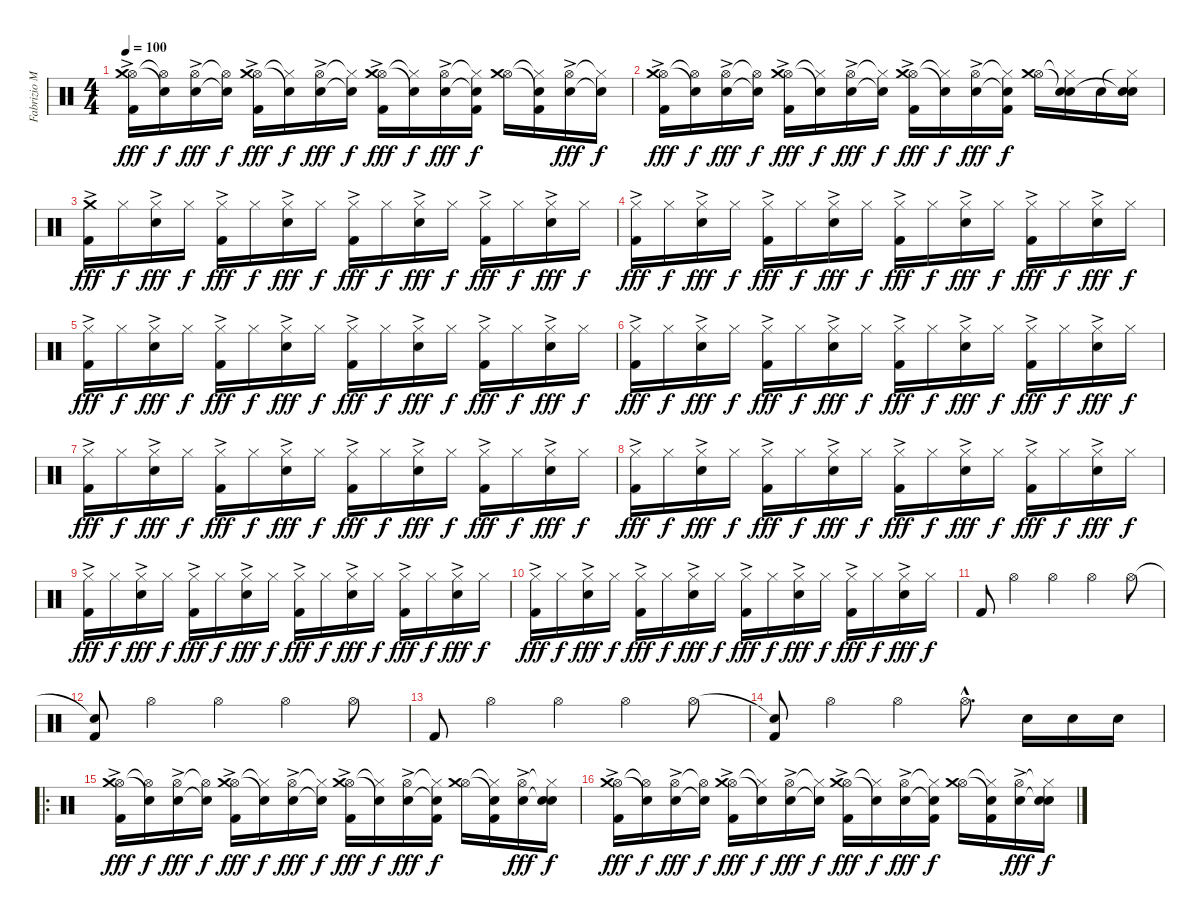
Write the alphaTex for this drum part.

\track ("Fabrizio Morreti (drums)" "Fabrizio M") {instrument percussion}
\staff {score}
\articulation defaults
\ts (4 4)
\tempo 100
\clef neutral
\ks c
("Hi-Hat (open)" "Crash medium (hit)" "Kick (hit) 2"{ac}).16{dy fff} ("Hi-Hat (open)"{t} "Snare (hit)"{t}).16{dy f} ("Hi-Hat (open)" "Electric Snare (hit)"{ac}).16{dy fff} ("Hi-Hat (open)"{t} "Snare (hit)"{t}).16{dy f} ("Hi-Hat (open)" "Crash medium (hit)" "Kick (hit) 2"{ac}).16{dy fff} ("Hi-Hat (closed)"{t} "Snare (hit)"{t}).16{dy f} ("Hi-Hat (open)" "Electric Snare (hit)"{ac}).16{dy fff} ("Hi-Hat (closed)"{t} "Snare (hit)"{t}).16{dy f} ("Hi-Hat (open)" "Crash medium (hit)" "Kick (hit) 2"{ac}).16{dy fff} ("Hi-Hat (closed)"{t} "Snare (hit)"{t}).16{dy f} ("Hi-Hat (open)" "Electric Snare (hit)"{ac}).16{dy fff} ("Hi-Hat (closed)"{t} "Snare (hit)"{t} "Kick (hit) 2").16{dy f} ("Hi-Hat (open)" "Crash medium (hit)").16 ("Hi-Hat (closed)"{t} "Snare (hit)"{t} "Kick (hit) 2").16 ("Hi-Hat (open)" "Electric Snare (hit)"{ac}).16{dy fff} ("Hi-Hat (closed)"{t} "Snare (hit)"{t}).16{dy f} |
("Hi-Hat (open)" "Crash medium (hit)" "Kick (hit) 2"{ac}).16{dy fff} ("Hi-Hat (open)"{t} "Snare (hit)"{t}).16{dy f} ("Hi-Hat (open)" "Electric Snare (hit)"{ac}).16{dy fff} ("Hi-Hat (open)"{t} "Snare (hit)"{t}).16{dy f} ("Hi-Hat (open)" "Crash medium (hit)" "Kick (hit) 2"{ac}).16{dy fff} ("Hi-Hat (closed)"{t} "Snare (hit)"{t}).16{dy f} ("Hi-Hat (open)" "Electric Snare (hit)"{ac}).16{dy fff} ("Hi-Hat (closed)"{t} "Snare (hit)"{t}).16{dy f} ("Hi-Hat (open)" "Crash medium (hit)" "Kick (hit) 2"{ac}).16{dy fff} ("Hi-Hat (closed)"{t} "Snare (hit)"{t}).16{dy f} ("Hi-Hat (open)" "Electric Snare (hit)"{ac}).16{dy fff} ("Hi-Hat (closed)"{t} "Snare (hit)"{t} "Kick (hit) 2").16{dy f} ("Hi-Hat (open)" "Crash medium (hit)").16 ("Hi-Hat (closed)"{t} "Snare (hit)"{t} "Electric Snare (hit)").16 "Electric Snare (hit)".16 ("Hi-Hat (closed)"{t} "Snare (hit)"{t} "Electric Snare (hit)").16 |
("Crash medium (hit)" "Kick (hit) 2"{ac}).16{dy fff} "Hi-Hat (closed)".16{dy f} ("Hi-Hat (closed)" "Electric Snare (hit)"{ac}).16{dy fff} "Hi-Hat (closed)".16{dy f} ("Hi-Hat (closed)" "Kick (hit) 2"{ac}).16{dy fff} "Hi-Hat (closed)".16{dy f} ("Hi-Hat (closed)" "Electric Snare (hit)"{ac}).16{dy fff} "Hi-Hat (closed)".16{dy f} ("Hi-Hat (closed)" "Kick (hit) 2"{ac}).16{dy fff} "Hi-Hat (closed)".16{dy f} ("Hi-Hat (closed)" "Electric Snare (hit)"{ac}).16{dy fff} "Hi-Hat (closed)".16{dy f} ("Hi-Hat (closed)" "Kick (hit) 2"{ac}).16{dy fff} "Hi-Hat (closed)".16{dy f} ("Hi-Hat (closed)" "Electric Snare (hit)"{ac}).16{dy fff} "Hi-Hat (closed)".16{dy f} |
("Hi-Hat (closed)" "Kick (hit) 2"{ac}).16{dy fff} "Hi-Hat (closed)".16{dy f} ("Hi-Hat (closed)" "Electric Snare (hit)"{ac}).16{dy fff} "Hi-Hat (closed)".16{dy f} ("Hi-Hat (closed)" "Kick (hit) 2"{ac}).16{dy fff} "Hi-Hat (closed)".16{dy f} ("Hi-Hat (closed)" "Electric Snare (hit)"{ac}).16{dy fff} "Hi-Hat (closed)".16{dy f} ("Hi-Hat (closed)" "Kick (hit) 2"{ac}).16{dy fff} "Hi-Hat (closed)".16{dy f} ("Hi-Hat (closed)" "Electric Snare (hit)"{ac}).16{dy fff} "Hi-Hat (closed)".16{dy f} ("Hi-Hat (closed)" "Kick (hit) 2"{ac}).16{dy fff} "Hi-Hat (closed)".16{dy f} ("Hi-Hat (closed)" "Electric Snare (hit)"{ac}).16{dy fff} "Hi-Hat (closed)".16{dy f} |
("Hi-Hat (closed)" "Kick (hit) 2"{ac}).16{dy fff} "Hi-Hat (closed)".16{dy f} ("Hi-Hat (closed)" "Electric Snare (hit)"{ac}).16{dy fff} "Hi-Hat (closed)".16{dy f} ("Hi-Hat (closed)" "Kick (hit) 2"{ac}).16{dy fff} "Hi-Hat (closed)".16{dy f} ("Hi-Hat (closed)" "Electric Snare (hit)"{ac}).16{dy fff} "Hi-Hat (closed)".16{dy f} ("Hi-Hat (closed)" "Kick (hit) 2"{ac}).16{dy fff} "Hi-Hat (closed)".16{dy f} ("Hi-Hat (closed)" "Electric Snare (hit)"{ac}).16{dy fff} "Hi-Hat (closed)".16{dy f} ("Hi-Hat (closed)" "Kick (hit) 2"{ac}).16{dy fff} "Hi-Hat (closed)".16{dy f} ("Hi-Hat (closed)" "Electric Snare (hit)"{ac}).16{dy fff} "Hi-Hat (closed)".16{dy f} |
("Hi-Hat (closed)" "Kick (hit) 2"{ac}).16{dy fff} "Hi-Hat (closed)".16{dy f} ("Hi-Hat (closed)" "Electric Snare (hit)"{ac}).16{dy fff} "Hi-Hat (closed)".16{dy f} ("Hi-Hat (closed)" "Kick (hit) 2"{ac}).16{dy fff} "Hi-Hat (closed)".16{dy f} ("Hi-Hat (closed)" "Electric Snare (hit)"{ac}).16{dy fff} "Hi-Hat (closed)".16{dy f} ("Hi-Hat (closed)" "Kick (hit) 2"{ac}).16{dy fff} "Hi-Hat (closed)".16{dy f} ("Hi-Hat (closed)" "Electric Snare (hit)"{ac}).16{dy fff} "Hi-Hat (closed)".16{dy f} ("Hi-Hat (closed)" "Kick (hit) 2"{ac}).16{dy fff} "Hi-Hat (closed)".16{dy f} ("Hi-Hat (closed)" "Electric Snare (hit)"{ac}).16{dy fff} "Hi-Hat (closed)".16{dy f} |
("Hi-Hat (closed)" "Kick (hit) 2"{ac}).16{dy fff} "Hi-Hat (closed)".16{dy f} ("Hi-Hat (closed)" "Electric Snare (hit)"{ac}).16{dy fff} "Hi-Hat (closed)".16{dy f} ("Hi-Hat (closed)" "Kick (hit) 2"{ac}).16{dy fff} "Hi-Hat (closed)".16{dy f} ("Hi-Hat (closed)" "Electric Snare (hit)"{ac}).16{dy fff} "Hi-Hat (closed)".16{dy f} ("Hi-Hat (closed)" "Kick (hit) 2"{ac}).16{dy fff} "Hi-Hat (closed)".16{dy f} ("Hi-Hat (closed)" "Electric Snare (hit)"{ac}).16{dy fff} "Hi-Hat (closed)".16{dy f} ("Hi-Hat (closed)" "Kick (hit) 2"{ac}).16{dy fff} "Hi-Hat (closed)".16{dy f} ("Hi-Hat (closed)" "Electric Snare (hit)"{ac}).16{dy fff} "Hi-Hat (closed)".16{dy f} |
("Hi-Hat (closed)" "Kick (hit) 2"{ac}).16{dy fff} "Hi-Hat (closed)".16{dy f} ("Hi-Hat (closed)" "Electric Snare (hit)"{ac}).16{dy fff} "Hi-Hat (closed)".16{dy f} ("Hi-Hat (closed)" "Kick (hit) 2"{ac}).16{dy fff} "Hi-Hat (closed)".16{dy f} ("Hi-Hat (closed)" "Electric Snare (hit)"{ac}).16{dy fff} "Hi-Hat (closed)".16{dy f} ("Hi-Hat (closed)" "Kick (hit) 2"{ac}).16{dy fff} "Hi-Hat (closed)".16{dy f} ("Hi-Hat (closed)" "Electric Snare (hit)"{ac}).16{dy fff} "Hi-Hat (closed)".16{dy f} ("Hi-Hat (closed)" "Kick (hit) 2"{ac}).16{dy fff} "Hi-Hat (closed)".16{dy f} ("Hi-Hat (closed)" "Electric Snare (hit)"{ac}).16{dy fff} "Hi-Hat (closed)".16{dy f} |
("Hi-Hat (closed)" "Kick (hit) 2"{ac}).16{dy fff} "Hi-Hat (closed)".16{dy f} ("Hi-Hat (closed)" "Electric Snare (hit)"{ac}).16{dy fff} "Hi-Hat (closed)".16{dy f} ("Hi-Hat (closed)" "Kick (hit) 2"{ac}).16{dy fff} "Hi-Hat (closed)".16{dy f} ("Hi-Hat (closed)" "Electric Snare (hit)"{ac}).16{dy fff} "Hi-Hat (closed)".16{dy f} ("Hi-Hat (closed)" "Kick (hit) 2"{ac}).16{dy fff} "Hi-Hat (closed)".16{dy f} ("Hi-Hat (closed)" "Electric Snare (hit)"{ac}).16{dy fff} "Hi-Hat (closed)".16{dy f} ("Hi-Hat (closed)" "Kick (hit) 2"{ac}).16{dy fff} "Hi-Hat (closed)".16{dy f} ("Hi-Hat (closed)" "Electric Snare (hit)"{ac}).16{dy fff} "Hi-Hat (closed)".16{dy f} |
("Hi-Hat (closed)" "Kick (hit) 2"{ac}).16{dy fff} "Hi-Hat (closed)".16{dy f} ("Hi-Hat (closed)" "Electric Snare (hit)"{ac}).16{dy fff} "Hi-Hat (closed)".16{dy f} ("Hi-Hat (closed)" "Kick (hit) 2"{ac}).16{dy fff} "Hi-Hat (closed)".16{dy f} ("Hi-Hat (closed)" "Electric Snare (hit)"{ac}).16{dy fff} "Hi-Hat (closed)".16{dy f} ("Hi-Hat (closed)" "Kick (hit) 2"{ac}).16{dy fff} "Hi-Hat (closed)".16{dy f} ("Hi-Hat (closed)" "Electric Snare (hit)"{ac}).16{dy fff} "Hi-Hat (closed)".16{dy f} ("Hi-Hat (closed)" "Kick (hit) 2"{ac}).16{dy fff} "Hi-Hat (closed)".16{dy f} ("Hi-Hat (closed)" "Electric Snare (hit)"{ac}).16{dy fff} "Hi-Hat (closed)".16{dy f} |
"Kick (hit) 2".8 "Hi-Hat (open)".4 "Hi-Hat (open)".4 "Hi-Hat (open)".4 "Hi-Hat (open)".8 |
("Snare (hit)"{t} "Kick (hit) 2").8 "Hi-Hat (open)".4 "Hi-Hat (open)".4 "Hi-Hat (open)".4 "Hi-Hat (open)".8 |
"Kick (hit) 2".8 "Hi-Hat (open)".4 "Hi-Hat (open)".4 "Hi-Hat (open)".4 "Hi-Hat (open)".8 |
("Snare (hit)"{t} "Kick (hit) 2").8 "Hi-Hat (open)".4 "Hi-Hat (open)".4 "Hi-Hat (open)"{hac}.8{d} "Electric Snare (hit)".16 "Electric Snare (hit)".16 "Electric Snare (hit)".16 |
\ro
("Hi-Hat (open)" "Crash medium (hit)" "Kick (hit) 2"{ac}).16{dy fff} ("Hi-Hat (open)"{t} "Snare (hit)"{t}).16{dy f} ("Hi-Hat (open)" "Electric Snare (hit)"{ac}).16{dy fff} ("Hi-Hat (open)"{t} "Snare (hit)"{t}).16{dy f} ("Hi-Hat (open)" "Crash medium (hit)" "Kick (hit) 2"{ac}).16{dy fff} ("Hi-Hat (closed)"{t} "Snare (hit)"{t}).16{dy f} ("Hi-Hat (open)" "Electric Snare (hit)"{ac}).16{dy fff} ("Hi-Hat (closed)"{t} "Snare (hit)"{t}).16{dy f} ("Hi-Hat (open)" "Crash medium (hit)" "Kick (hit) 2"{ac}).16{dy fff} ("Hi-Hat (closed)"{t} "Snare (hit)"{t}).16{dy f} ("Hi-Hat (open)" "Electric Snare (hit)"{ac}).16{dy fff} ("Hi-Hat (closed)"{t} "Snare (hit)"{t} "Kick (hit) 2").16{dy f} ("Hi-Hat (open)" "Crash medium (hit)").16 ("Hi-Hat (closed)"{t} "Snare (hit)"{t} "Kick (hit) 2").16 ("Hi-Hat (open)" "Electric Snare (hit)"{ac}).16{dy fff} ("Hi-Hat (closed)"{t} "Snare (hit)"{t} "Electric Snare (hit)").16{dy f} |
("Hi-Hat (open)" "Crash medium (hit)" "Kick (hit) 2"{ac}).16{dy fff} ("Hi-Hat (open)"{t} "Snare (hit)"{t}).16{dy f} ("Hi-Hat (open)" "Electric Snare (hit)"{ac}).16{dy fff} ("Hi-Hat (open)"{t} "Snare (hit)"{t}).16{dy f} ("Hi-Hat (open)" "Crash medium (hit)" "Kick (hit) 2"{ac}).16{dy fff} ("Hi-Hat (closed)"{t} "Snare (hit)"{t}).16{dy f} ("Hi-Hat (open)" "Electric Snare (hit)"{ac}).16{dy fff} ("Hi-Hat (closed)"{t} "Snare (hit)"{t}).16{dy f} ("Hi-Hat (open)" "Crash medium (hit)" "Kick (hit) 2"{ac}).16{dy fff} ("Hi-Hat (closed)"{t} "Snare (hit)"{t}).16{dy f} ("Hi-Hat (open)" "Electric Snare (hit)"{ac}).16{dy fff} ("Hi-Hat (closed)"{t} "Snare (hit)"{t} "Kick (hit) 2").16{dy f} ("Hi-Hat (open)" "Crash medium (hit)").16 ("Hi-Hat (closed)"{t} "Snare (hit)"{t} "Kick (hit) 2").16 ("Hi-Hat (open)" "Electric Snare (hit)"{ac}).16{dy fff} ("Hi-Hat (closed)"{t} "Snare (hit)"{t} "Electric Snare (hit)").16{dy f}
